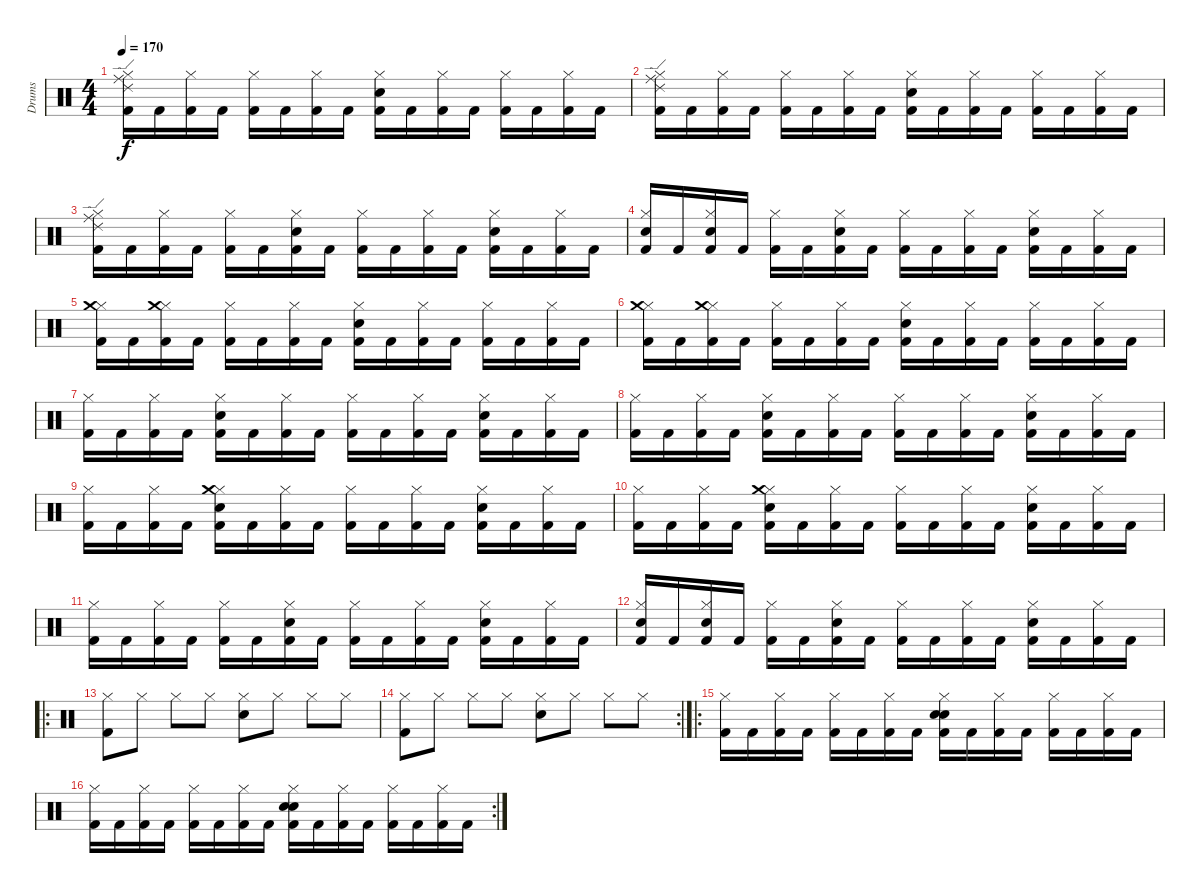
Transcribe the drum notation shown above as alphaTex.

\track ("Drums" "Drums") {instrument percussion}
\staff {score}
\articulation defaults
\ts (4 4)
\tempo 170
\clef neutral
\ks c
("Kick (hit) 2" "Hi-Hat (closed)" "Ride (middle)" "Ride (edge) 2").16{dy f} "Kick (hit) 2".16 ("Kick (hit) 2" "Hi-Hat (closed)").16 "Kick (hit) 2".16 ("Kick (hit) 2" "Hi-Hat (closed)").16 "Kick (hit) 2".16 ("Kick (hit) 2" "Hi-Hat (closed)").16 "Kick (hit) 2".16 ("Kick (hit) 2" "Hi-Hat (closed)" "Electric Snare (hit)").16 "Kick (hit) 2".16 ("Kick (hit) 2" "Hi-Hat (closed)").16 "Kick (hit) 2".16 ("Kick (hit) 2" "Hi-Hat (closed)").16 "Kick (hit) 2".16 ("Kick (hit) 2" "Hi-Hat (closed)").16 "Kick (hit) 2".16 |
("Kick (hit) 2" "Hi-Hat (closed)" "Ride (middle)" "Ride (edge) 2").16 "Kick (hit) 2".16 ("Kick (hit) 2" "Hi-Hat (closed)").16 "Kick (hit) 2".16 ("Kick (hit) 2" "Hi-Hat (closed)").16 "Kick (hit) 2".16 ("Kick (hit) 2" "Hi-Hat (closed)").16 "Kick (hit) 2".16 ("Kick (hit) 2" "Hi-Hat (closed)" "Electric Snare (hit)").16 "Kick (hit) 2".16 ("Kick (hit) 2" "Hi-Hat (closed)").16 "Kick (hit) 2".16 ("Kick (hit) 2" "Hi-Hat (closed)").16 "Kick (hit) 2".16 ("Kick (hit) 2" "Hi-Hat (closed)").16 "Kick (hit) 2".16 |
("Kick (hit) 2" "Hi-Hat (closed)" "Ride (middle)" "Ride (edge) 2").16 "Kick (hit) 2".16 ("Kick (hit) 2" "Hi-Hat (closed)").16 "Kick (hit) 2".16 ("Kick (hit) 2" "Hi-Hat (closed)").16 "Kick (hit) 2".16 ("Kick (hit) 2" "Hi-Hat (closed)" "Electric Snare (hit)").16 "Kick (hit) 2".16 ("Kick (hit) 2" "Hi-Hat (closed)").16 "Kick (hit) 2".16 ("Kick (hit) 2" "Hi-Hat (closed)").16 "Kick (hit) 2".16 ("Kick (hit) 2" "Hi-Hat (closed)" "Electric Snare (hit)").16 "Kick (hit) 2".16 ("Kick (hit) 2" "Hi-Hat (closed)").16 "Kick (hit) 2".16 |
("Kick (hit) 2" "Hi-Hat (closed)" "Electric Snare (hit)").16 "Kick (hit) 2".16 ("Kick (hit) 2" "Hi-Hat (closed)" "Electric Snare (hit)").16 "Kick (hit) 2".16 ("Kick (hit) 2" "Hi-Hat (closed)").16 "Kick (hit) 2".16 ("Kick (hit) 2" "Hi-Hat (closed)" "Electric Snare (hit)").16 "Kick (hit) 2".16 ("Kick (hit) 2" "Hi-Hat (closed)").16 "Kick (hit) 2".16 ("Kick (hit) 2" "Hi-Hat (closed)").16 "Kick (hit) 2".16 ("Kick (hit) 2" "Hi-Hat (closed)" "Electric Snare (hit)").16 "Kick (hit) 2".16 ("Kick (hit) 2" "Hi-Hat (closed)").16 "Kick (hit) 2".16 |
("Kick (hit) 2" "Hi-Hat (closed)" "Crash medium (hit)").16 "Kick (hit) 2".16 ("Kick (hit) 2" "Hi-Hat (closed)" "Crash medium (hit)").16 "Kick (hit) 2".16 ("Kick (hit) 2" "Hi-Hat (closed)").16 "Kick (hit) 2".16 ("Kick (hit) 2" "Hi-Hat (closed)").16 "Kick (hit) 2".16 ("Kick (hit) 2" "Hi-Hat (closed)" "Electric Snare (hit)").16 "Kick (hit) 2".16 ("Kick (hit) 2" "Hi-Hat (closed)").16 "Kick (hit) 2".16 ("Kick (hit) 2" "Hi-Hat (closed)").16 "Kick (hit) 2".16 ("Kick (hit) 2" "Hi-Hat (closed)").16 "Kick (hit) 2".16 |
("Kick (hit) 2" "Hi-Hat (closed)" "Crash medium (hit)").16 "Kick (hit) 2".16 ("Kick (hit) 2" "Hi-Hat (closed)" "Crash medium (hit)").16 "Kick (hit) 2".16 ("Kick (hit) 2" "Hi-Hat (closed)").16 "Kick (hit) 2".16 ("Kick (hit) 2" "Hi-Hat (closed)").16 "Kick (hit) 2".16 ("Kick (hit) 2" "Hi-Hat (closed)" "Electric Snare (hit)").16 "Kick (hit) 2".16 ("Kick (hit) 2" "Hi-Hat (closed)").16 "Kick (hit) 2".16 ("Kick (hit) 2" "Hi-Hat (closed)").16 "Kick (hit) 2".16 ("Kick (hit) 2" "Hi-Hat (closed)").16 "Kick (hit) 2".16 |
("Kick (hit) 2" "Hi-Hat (closed)").16 "Kick (hit) 2".16 ("Kick (hit) 2" "Hi-Hat (closed)").16 "Kick (hit) 2".16 ("Kick (hit) 2" "Hi-Hat (closed)" "Electric Snare (hit)").16 "Kick (hit) 2".16 ("Kick (hit) 2" "Hi-Hat (closed)").16 "Kick (hit) 2".16 ("Kick (hit) 2" "Hi-Hat (closed)").16 "Kick (hit) 2".16 ("Kick (hit) 2" "Hi-Hat (closed)").16 "Kick (hit) 2".16 ("Kick (hit) 2" "Hi-Hat (closed)" "Electric Snare (hit)").16 "Kick (hit) 2".16 ("Kick (hit) 2" "Hi-Hat (closed)").16 "Kick (hit) 2".16 |
("Kick (hit) 2" "Hi-Hat (closed)").16 "Kick (hit) 2".16 ("Kick (hit) 2" "Hi-Hat (closed)").16 "Kick (hit) 2".16 ("Kick (hit) 2" "Hi-Hat (closed)" "Electric Snare (hit)").16 "Kick (hit) 2".16 ("Kick (hit) 2" "Hi-Hat (closed)").16 "Kick (hit) 2".16 ("Kick (hit) 2" "Hi-Hat (closed)").16 "Kick (hit) 2".16 ("Kick (hit) 2" "Hi-Hat (closed)").16 "Kick (hit) 2".16 ("Kick (hit) 2" "Hi-Hat (closed)" "Electric Snare (hit)").16 "Kick (hit) 2".16 ("Kick (hit) 2" "Hi-Hat (closed)").16 "Kick (hit) 2".16 |
("Kick (hit) 2" "Hi-Hat (closed)").16 "Kick (hit) 2".16 ("Kick (hit) 2" "Hi-Hat (closed)").16 "Kick (hit) 2".16 ("Kick (hit) 2" "Hi-Hat (closed)" "Electric Snare (hit)" "Crash medium (hit)").16 "Kick (hit) 2".16 ("Kick (hit) 2" "Hi-Hat (closed)").16 "Kick (hit) 2".16 ("Kick (hit) 2" "Hi-Hat (closed)").16 "Kick (hit) 2".16 ("Kick (hit) 2" "Hi-Hat (closed)").16 "Kick (hit) 2".16 ("Kick (hit) 2" "Hi-Hat (closed)" "Electric Snare (hit)").16 "Kick (hit) 2".16 ("Kick (hit) 2" "Hi-Hat (closed)").16 "Kick (hit) 2".16 |
("Kick (hit) 2" "Hi-Hat (closed)").16 "Kick (hit) 2".16 ("Kick (hit) 2" "Hi-Hat (closed)").16 "Kick (hit) 2".16 ("Kick (hit) 2" "Hi-Hat (closed)" "Electric Snare (hit)" "Crash medium (hit)").16 "Kick (hit) 2".16 ("Kick (hit) 2" "Hi-Hat (closed)").16 "Kick (hit) 2".16 ("Kick (hit) 2" "Hi-Hat (closed)").16 "Kick (hit) 2".16 ("Kick (hit) 2" "Hi-Hat (closed)").16 "Kick (hit) 2".16 ("Kick (hit) 2" "Hi-Hat (closed)" "Electric Snare (hit)").16 "Kick (hit) 2".16 ("Kick (hit) 2" "Hi-Hat (closed)").16 "Kick (hit) 2".16 |
("Kick (hit) 2" "Hi-Hat (closed)").16 "Kick (hit) 2".16 ("Kick (hit) 2" "Hi-Hat (closed)").16 "Kick (hit) 2".16 ("Kick (hit) 2" "Hi-Hat (closed)").16 "Kick (hit) 2".16 ("Kick (hit) 2" "Hi-Hat (closed)" "Electric Snare (hit)").16 "Kick (hit) 2".16 ("Kick (hit) 2" "Hi-Hat (closed)").16 "Kick (hit) 2".16 ("Kick (hit) 2" "Hi-Hat (closed)").16 "Kick (hit) 2".16 ("Kick (hit) 2" "Hi-Hat (closed)" "Electric Snare (hit)").16 "Kick (hit) 2".16 ("Kick (hit) 2" "Hi-Hat (closed)").16 "Kick (hit) 2".16 |
("Kick (hit) 2" "Hi-Hat (closed)" "Electric Snare (hit)").16 "Kick (hit) 2".16 ("Kick (hit) 2" "Hi-Hat (closed)" "Electric Snare (hit)").16 "Kick (hit) 2".16 ("Kick (hit) 2" "Hi-Hat (closed)").16 "Kick (hit) 2".16 ("Kick (hit) 2" "Hi-Hat (closed)" "Electric Snare (hit)").16 "Kick (hit) 2".16 ("Kick (hit) 2" "Hi-Hat (closed)").16 "Kick (hit) 2".16 ("Kick (hit) 2" "Hi-Hat (closed)").16 "Kick (hit) 2".16 ("Kick (hit) 2" "Hi-Hat (closed)" "Electric Snare (hit)").16 "Kick (hit) 2".16 ("Kick (hit) 2" "Hi-Hat (closed)").16 "Kick (hit) 2".16 |
\ro
("Kick (hit) 2" "Hi-Hat (closed)").8 "Hi-Hat (closed)".8 "Hi-Hat (closed)".8 "Hi-Hat (closed)".8 ("Electric Snare (hit)" "Hi-Hat (closed)").8 "Hi-Hat (closed)".8 "Hi-Hat (closed)".8 "Hi-Hat (closed)".8 |
\rc 2
("Kick (hit) 2" "Hi-Hat (closed)").8 "Hi-Hat (closed)".8 "Hi-Hat (closed)".8 "Hi-Hat (closed)".8 ("Electric Snare (hit)" "Hi-Hat (closed)").8 "Hi-Hat (closed)".8 "Hi-Hat (closed)".8 "Hi-Hat (closed)".8 |
\ro
("Kick (hit) 2" "Hi-Hat (closed)").16 "Kick (hit) 2".16 ("Kick (hit) 2" "Hi-Hat (closed)").16 "Kick (hit) 2".16 ("Kick (hit) 2" "Hi-Hat (closed)").16 "Kick (hit) 2".16 ("Kick (hit) 2" "Hi-Hat (closed)").16 "Kick (hit) 2".16 ("Kick (hit) 2" "Electric Snare (hit)" "Hi-Hat (closed)" "Snare (hit) 2").16 "Kick (hit) 2".16 ("Kick (hit) 2" "Hi-Hat (closed)").16 "Kick (hit) 2".16 ("Kick (hit) 2" "Hi-Hat (closed)").16 "Kick (hit) 2".16 ("Kick (hit) 2" "Hi-Hat (closed)").16 "Kick (hit) 2".16 |
\rc 2
("Kick (hit) 2" "Hi-Hat (closed)").16 "Kick (hit) 2".16 ("Kick (hit) 2" "Hi-Hat (closed)").16 "Kick (hit) 2".16 ("Kick (hit) 2" "Hi-Hat (closed)").16 "Kick (hit) 2".16 ("Kick (hit) 2" "Hi-Hat (closed)").16 "Kick (hit) 2".16 ("Kick (hit) 2" "Electric Snare (hit)" "Hi-Hat (closed)" "Snare (hit) 2").16 "Kick (hit) 2".16 ("Kick (hit) 2" "Hi-Hat (closed)").16 "Kick (hit) 2".16 ("Kick (hit) 2" "Hi-Hat (closed)").16 "Kick (hit) 2".16 ("Kick (hit) 2" "Hi-Hat (closed)").16 "Kick (hit) 2".16
